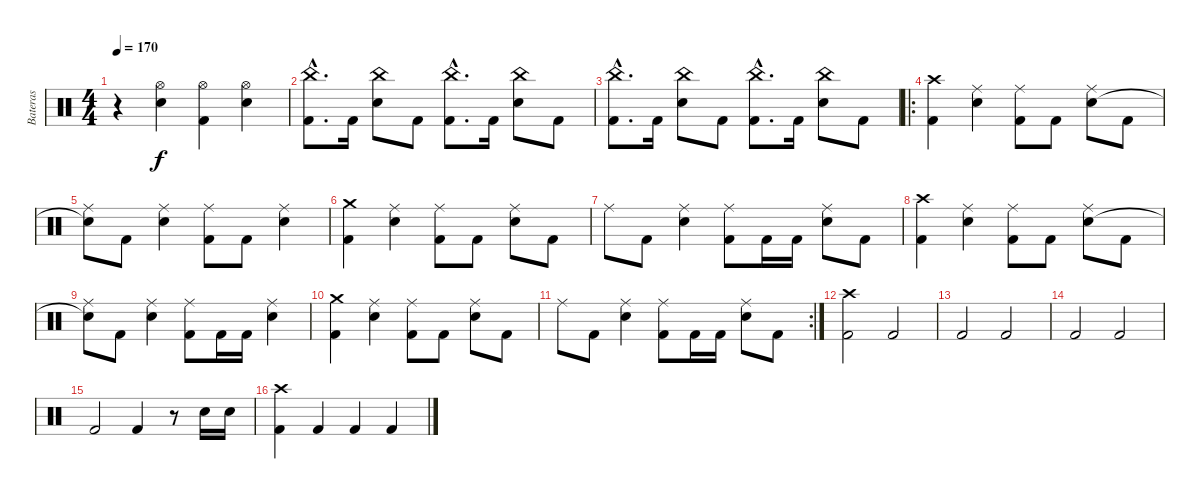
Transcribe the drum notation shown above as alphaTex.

\track ("Bateras" "Bateras") {instrument percussion}
\staff {score}
\articulation defaults
\ts (4 4)
\tempo 170
\clef neutral
\ks c
r.4{dy f} ("Hi-Hat (open)" "Snare (hit) 2").4 ("Hi-Hat (open)" "Kick (hit) 2").4 ("Hi-Hat (open)" "Snare (hit) 2").4 |
("China (hit)"{hac} "Kick (hit) 2"{hac}).8{d} "Kick (hit) 2".16 ("China (hit)" "Snare (hit) 2").8 "Kick (hit) 2".8 ("China (hit)"{hac} "Kick (hit) 2"{hac}).8{d} "Kick (hit) 2".16 ("China (hit)" "Snare (hit) 2").8 "Kick (hit) 2".8 |
("China (hit)"{hac} "Kick (hit) 2"{hac}).8{d} "Kick (hit) 2".16 ("China (hit)" "Snare (hit) 2").8 "Kick (hit) 2".8 ("China (hit)"{hac} "Kick (hit) 2"{hac}).8{d} "Kick (hit) 2".16 ("China (hit)" "Snare (hit) 2").8 "Kick (hit) 2".8 |
\ro
("Crash high (hit)" "Kick (hit) 2").4 ("Ride (middle)" "Snare (hit) 2").4 ("Ride (middle)" "Kick (hit) 2").8 "Kick (hit) 2".8 ("Ride (middle)" "Snare (hit) 2").8 "Kick (hit) 2".8 |
("Ride (middle)" "Snare (hit)"{t}).8 "Kick (hit) 2".8 ("Ride (middle)" "Snare (hit) 2").4 ("Ride (middle)" "Kick (hit) 2").8 "Kick (hit) 2".8 ("Ride (middle)" "Snare (hit) 2").4 |
("Crash medium (hit)" "Kick (hit) 2").4 ("Ride (middle)" "Snare (hit) 2").4 ("Ride (middle)" "Kick (hit) 2").8 "Kick (hit) 2".8 ("Ride (middle)" "Snare (hit) 2").8 "Kick (hit) 2".8 |
"Ride (middle)".8 "Kick (hit) 2".8 ("Ride (middle)" "Snare (hit) 2").4 ("Ride (middle)" "Kick (hit) 2").8 "Kick (hit) 2".16 "Kick (hit) 2".16 ("Ride (middle)" "Snare (hit) 2").8 "Kick (hit) 2".8 |
("Crash high (hit)" "Kick (hit) 2").4 ("Ride (middle)" "Snare (hit) 2").4 ("Ride (middle)" "Kick (hit) 2").8 "Kick (hit) 2".8 ("Ride (middle)" "Snare (hit) 2").8 "Kick (hit) 2".8 |
("Ride (middle)" "Snare (hit)"{t}).8 "Kick (hit) 2".8 ("Ride (middle)" "Snare (hit) 2").4 ("Ride (middle)" "Kick (hit) 2").8 "Kick (hit) 2".16 "Kick (hit) 2".16 ("Ride (middle)" "Snare (hit) 2").4 |
("Crash medium (hit)" "Kick (hit) 2").4 ("Ride (middle)" "Snare (hit) 2").4 ("Ride (middle)" "Kick (hit) 2").8 "Kick (hit) 2".8 ("Ride (middle)" "Snare (hit) 2").8 "Kick (hit) 2".8 |
\rc 2 "Ride (middle)".8 "Kick (hit) 2".8
("Ride (middle)" "Snare (hit) 2").4 ("Ride (middle)" "Kick (hit) 2").8 "Kick (hit) 2".16 "Kick (hit) 2".16 ("Ride (middle)" "Snare (hit) 2").8 "Kick (hit) 2".8 |
("Crash high (hit)" "Kick (hit) 2").2 "Kick (hit) 2".2 |
"Kick (hit) 2".2 "Kick (hit) 2".2 |
"Kick (hit) 2".2 "Kick (hit) 2".2 |
"Kick (hit) 2".2 "Kick (hit) 2".4 r.8 "Snare (hit) 2".16 "Snare (hit) 2".16 |
("Crash high (hit)" "Kick (hit) 2").4 "Kick (hit) 2".4 "Kick (hit) 2".4 "Kick (hit) 2".4
